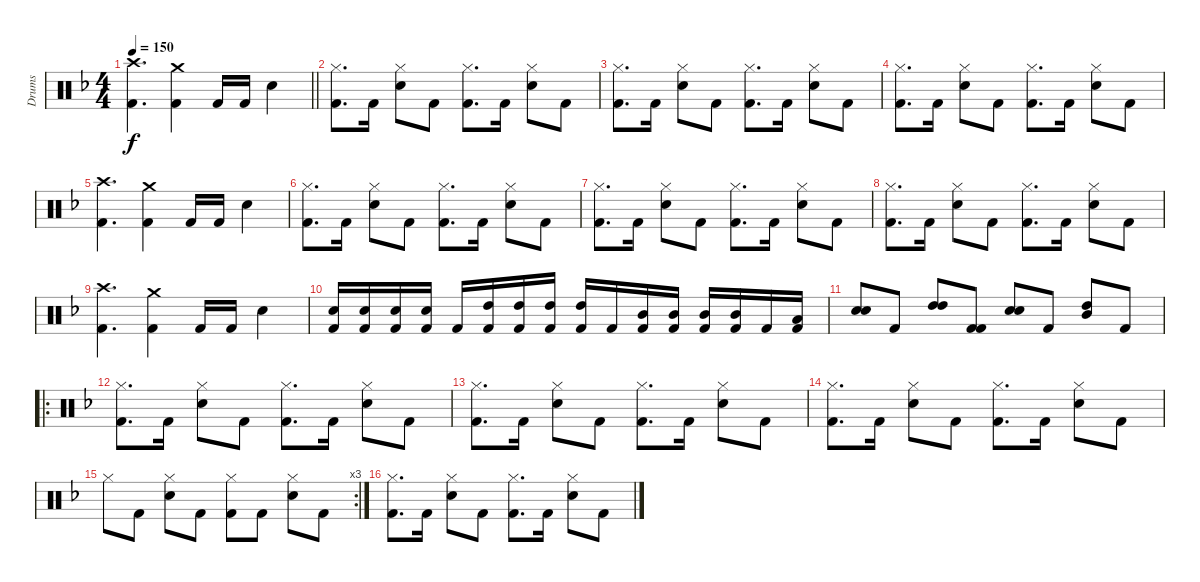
\track ("Drums" "Drums") {instrument percussion}
\staff {score}
\articulation defaults
\ts (4 4)
\tempo 150
\clef neutral
\barLineRight lightlight
\ks f
("Kick (hit) 2" "Crash high (hit)").4{d dy f} ("Kick (hit) 2" "Crash medium (hit)").4 "Kick (hit) 2".16 "Kick (hit) 2".16 "Snare (hit) 2".4 |
("Kick (hit) 2" "Hi-Hat (closed)").8{d} "Kick (hit) 2".16 ("Snare (hit) 2" "Hi-Hat (closed)").8 "Kick (hit) 2".8 ("Kick (hit) 2" "Hi-Hat (closed)").8{d} "Kick (hit) 2".16 ("Snare (hit) 2" "Hi-Hat (closed)").8 "Kick (hit) 2".8 |
("Kick (hit) 2" "Hi-Hat (closed)").8{d} "Kick (hit) 2".16 ("Snare (hit) 2" "Hi-Hat (closed)").8 "Kick (hit) 2".8 ("Kick (hit) 2" "Hi-Hat (closed)").8{d} "Kick (hit) 2".16 ("Snare (hit) 2" "Hi-Hat (closed)").8 "Kick (hit) 2".8 |
("Kick (hit) 2" "Hi-Hat (closed)").8{d} "Kick (hit) 2".16 ("Snare (hit) 2" "Hi-Hat (closed)").8 "Kick (hit) 2".8 ("Kick (hit) 2" "Hi-Hat (closed)").8{d} "Kick (hit) 2".16 ("Snare (hit) 2" "Hi-Hat (closed)").8 "Kick (hit) 2".8 |
("Kick (hit) 2" "Crash high (hit)").4{d} ("Kick (hit) 2" "Crash medium (hit)").4 "Kick (hit) 2".16 "Kick (hit) 2".16 "Snare (hit) 2".4 |
("Kick (hit) 2" "Hi-Hat (closed)").8{d} "Kick (hit) 2".16 ("Snare (hit) 2" "Hi-Hat (closed)").8 "Kick (hit) 2".8 ("Kick (hit) 2" "Hi-Hat (closed)").8{d} "Kick (hit) 2".16 ("Snare (hit) 2" "Hi-Hat (closed)").8 "Kick (hit) 2".8 |
("Kick (hit) 2" "Hi-Hat (closed)").8{d} "Kick (hit) 2".16 ("Snare (hit) 2" "Hi-Hat (closed)").8 "Kick (hit) 2".8 ("Kick (hit) 2" "Hi-Hat (closed)").8{d} "Kick (hit) 2".16 ("Snare (hit) 2" "Hi-Hat (closed)").8 "Kick (hit) 2".8 |
("Kick (hit) 2" "Hi-Hat (closed)").8{d} "Kick (hit) 2".16 ("Snare (hit) 2" "Hi-Hat (closed)").8 "Kick (hit) 2".8 ("Kick (hit) 2" "Hi-Hat (closed)").8{d} "Kick (hit) 2".16 ("Snare (hit) 2" "Hi-Hat (closed)").8 "Kick (hit) 2".8 |
("Kick (hit) 2" "Crash high (hit)").4{d} ("Kick (hit) 2" "Crash medium (hit)").4 "Kick (hit) 2".16 "Kick (hit) 2".16 "Snare (hit) 2".4 |
("Kick (hit) 2" "Snare (hit) 2").16 ("Kick (hit) 2" "Snare (hit) 2").16 ("Kick (hit) 2" "Snare (hit) 2").16 ("Kick (hit) 2" "Snare (hit) 2").16 "Kick (hit) 2".16 ("Kick (hit) 2" "High Tom (hit)").16 ("Kick (hit) 2" "High Tom (hit)").16 ("Kick (hit) 2" "High Tom (hit)").16 ("Kick (hit) 2" "High Tom (hit)").16 "Kick (hit) 2".16 ("Kick (hit) 2" "Mid Tom (hit)").16 ("Kick (hit) 2" "Mid Tom (hit)").16 ("Kick (hit) 2" "Mid Tom (hit)").16 ("Kick (hit) 2" "Mid Tom (hit)").16 "Kick (hit) 2".16 ("Kick (hit) 2" "Low Tom (hit)").16 |
("Electric Snare (hit)" "Electric Snare (hit)").8{bd 480} "Kick (hit) 2".8 ("High Tom (hit)" "High Tom (hit)").8{bd 480} ("Kick (hit) 2" "Kick (hit) 2").8 ("Snare (hit) 2" "Electric Snare (hit)").8{bd 120} "Kick (hit) 2".8 ("High Tom (hit)" "Mid Tom (hit)").8{bd 480} "Kick (hit) 2".8 |
\ro
("Kick (hit) 2" "Hi-Hat (closed)").8{d} "Kick (hit) 2".16 ("Snare (hit) 2" "Hi-Hat (closed)").8 "Kick (hit) 2".8 ("Kick (hit) 2" "Hi-Hat (closed)").8{d} "Kick (hit) 2".16 ("Snare (hit) 2" "Hi-Hat (closed)").8 "Kick (hit) 2".8 |
("Kick (hit) 2" "Hi-Hat (closed)").8{d} "Kick (hit) 2".16 ("Snare (hit) 2" "Hi-Hat (closed)").8 "Kick (hit) 2".8 ("Kick (hit) 2" "Hi-Hat (closed)").8{d} "Kick (hit) 2".16 ("Snare (hit) 2" "Hi-Hat (closed)").8 "Kick (hit) 2".8 |
("Kick (hit) 2" "Hi-Hat (closed)").8{d} "Kick (hit) 2".16 ("Snare (hit) 2" "Hi-Hat (closed)").8 "Kick (hit) 2".8 ("Kick (hit) 2" "Hi-Hat (closed)").8{d} "Kick (hit) 2".16 ("Snare (hit) 2" "Hi-Hat (closed)").8 "Kick (hit) 2".8 |
\rc 3 "Hi-Hat (closed)".8 "Kick (hit) 2".8
("Snare (hit) 2" "Hi-Hat (closed)").8 "Kick (hit) 2".8 ("Kick (hit) 2" "Hi-Hat (closed)").8 "Kick (hit) 2".8 ("Hi-Hat (closed)" "Snare (hit) 2").8 "Kick (hit) 2".8 |
("Kick (hit) 2" "Hi-Hat (closed)").8{d} "Kick (hit) 2".16 ("Snare (hit) 2" "Hi-Hat (closed)").8 "Kick (hit) 2".8 ("Kick (hit) 2" "Hi-Hat (closed)").8{d} "Kick (hit) 2".16 ("Snare (hit) 2" "Hi-Hat (closed)").8 "Kick (hit) 2".8
